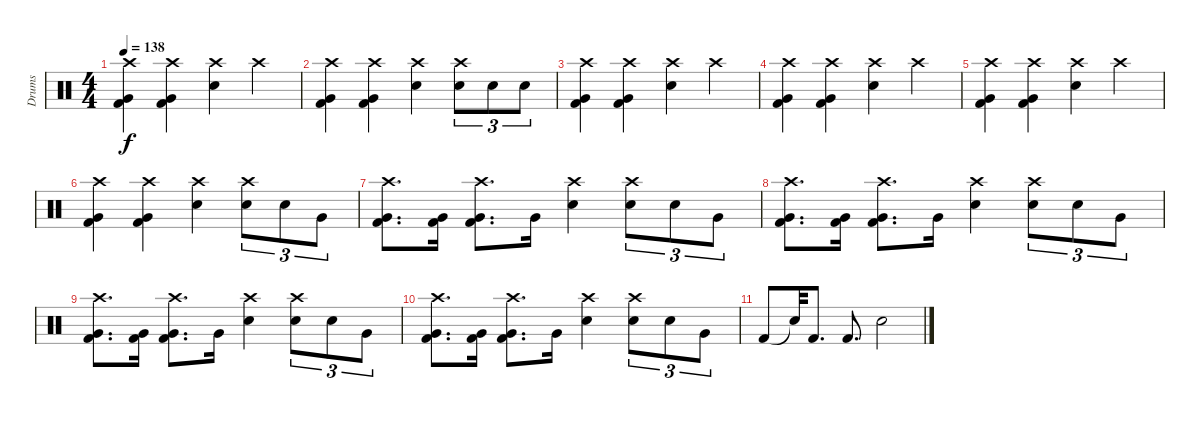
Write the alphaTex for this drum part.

\track ("Drums" "Drums") {instrument percussion}
\staff {score}
\articulation defaults
\ts (4 4)
\tempo 138
\clef neutral
\ks c
("Crash high (hit)" "Very Low Tom (hit)" "Kick (hit) 2").4{dy f} ("Crash high (hit)" "Very Low Tom (hit)" "Kick (hit) 2").4 ("Crash high (hit)" "Snare (hit) 2").4 "Crash high (hit)".4 |
("Crash high (hit)" "Very Low Tom (hit)" "Kick (hit) 2").4 ("Crash high (hit)" "Very Low Tom (hit)" "Kick (hit) 2").4 ("Crash high (hit)" "Snare (hit) 2").4 ("Crash high (hit)" "Snare (hit) 2").8{tu (3 2)} "Snare (hit) 2".8{tu (3 2)} "Snare (hit) 2".8{tu (3 2)} |
("Crash high (hit)" "Very Low Tom (hit)" "Kick (hit) 2").4 ("Crash high (hit)" "Very Low Tom (hit)" "Kick (hit) 2").4 ("Crash high (hit)" "Snare (hit) 2").4 "Crash high (hit)".4 |
("Crash high (hit)" "Very Low Tom (hit)" "Kick (hit) 2").4 ("Crash high (hit)" "Very Low Tom (hit)" "Kick (hit) 2").4 ("Crash high (hit)" "Snare (hit) 2").4 "Crash high (hit)".4 |
("Crash high (hit)" "Very Low Tom (hit)" "Kick (hit) 2").4 ("Crash high (hit)" "Very Low Tom (hit)" "Kick (hit) 2").4 ("Crash high (hit)" "Snare (hit) 2").4 "Crash high (hit)".4 |
("Crash high (hit)" "Very Low Tom (hit)" "Kick (hit) 2").4 ("Crash high (hit)" "Very Low Tom (hit)" "Kick (hit) 2").4 ("Crash high (hit)" "Snare (hit) 2").4 ("Crash high (hit)" "Snare (hit) 2").8{tu (3 2)} "Snare (hit) 2".8{tu (3 2)} "Very Low Tom (hit)".8{tu (3 2)} |
("Crash high (hit)" "Very Low Tom (hit)" "Kick (hit) 2").8{d} ("Very Low Tom (hit)" "Kick (hit) 2").16 ("Crash high (hit)" "Very Low Tom (hit)" "Kick (hit) 2").8{d} "Very Low Tom (hit)".16 ("Crash high (hit)" "Snare (hit) 2").4 ("Crash high (hit)" "Snare (hit) 2").8{tu (3 2)} "Snare (hit) 2".8{tu (3 2)} "Very Low Tom (hit)".8{tu (3 2)} |
("Crash high (hit)" "Very Low Tom (hit)" "Kick (hit) 2").8{d} ("Very Low Tom (hit)" "Kick (hit) 2").16 ("Crash high (hit)" "Very Low Tom (hit)" "Kick (hit) 2").8{d} "Very Low Tom (hit)".16 ("Crash high (hit)" "Snare (hit) 2").4 ("Crash high (hit)" "Snare (hit) 2").8{tu (3 2)} "Snare (hit) 2".8{tu (3 2)} "Very Low Tom (hit)".8{tu (3 2)} |
("Crash high (hit)" "Very Low Tom (hit)" "Kick (hit) 2").8{d} ("Very Low Tom (hit)" "Kick (hit) 2").16 ("Crash high (hit)" "Very Low Tom (hit)" "Kick (hit) 2").8{d} "Very Low Tom (hit)".16 ("Crash high (hit)" "Snare (hit) 2").4 ("Crash high (hit)" "Snare (hit) 2").8{tu (3 2)} "Snare (hit) 2".8{tu (3 2)} "Very Low Tom (hit)".8{tu (3 2)} |
("Crash high (hit)" "Very Low Tom (hit)" "Kick (hit) 2").8{d} ("Very Low Tom (hit)" "Kick (hit) 2").16 ("Crash high (hit)" "Very Low Tom (hit)" "Kick (hit) 2").8{d} "Very Low Tom (hit)".16 ("Crash high (hit)" "Snare (hit) 2").4 ("Crash high (hit)" "Snare (hit) 2").8{tu (3 2)} "Snare (hit) 2".8{tu (3 2)} "Very Low Tom (hit)".8{tu (3 2)} |
"Kick (hit) 2".8 "Snare (hit)"{t}.32 "Kick (hit) 2".8{d} "Kick (hit) 2".8{d} "Snare (hit) 2".2
